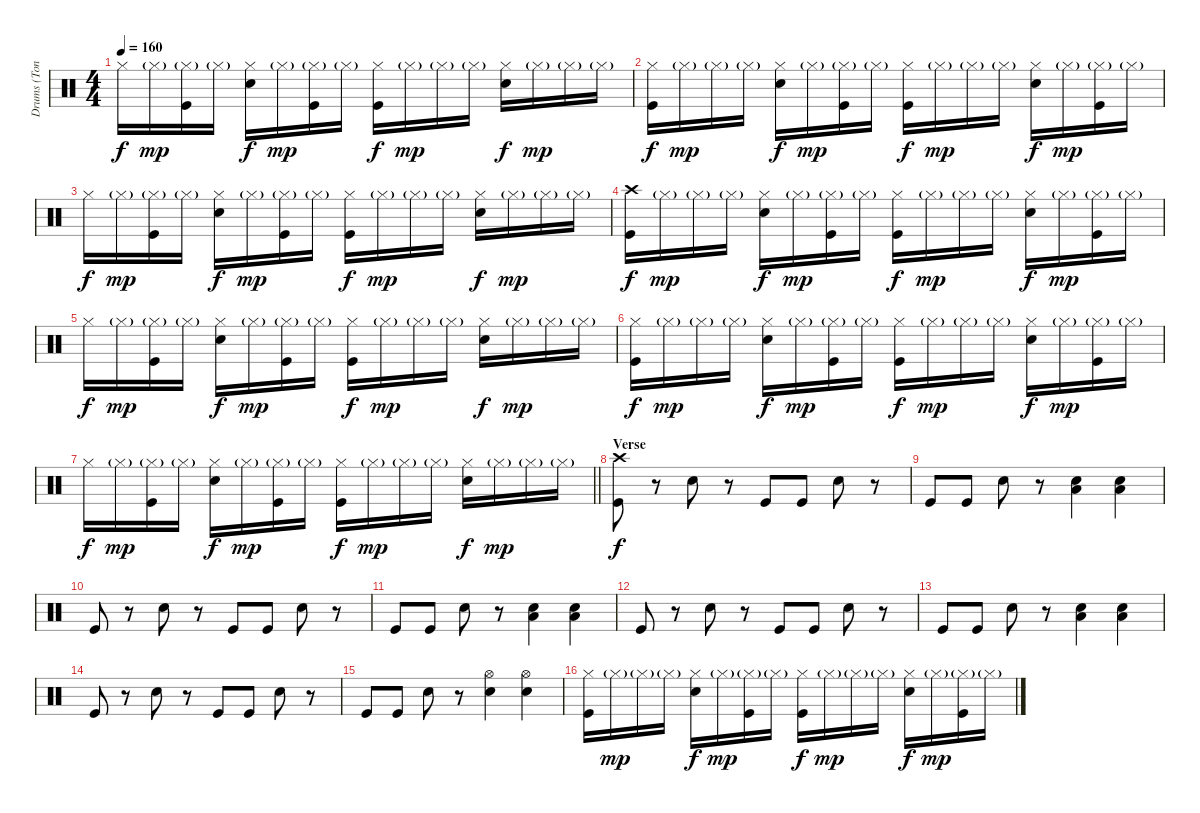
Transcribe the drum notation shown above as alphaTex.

\track ("Drums (Tony)" "Drums (Ton") {instrument percussion}
\staff {score}
\articulation defaults
\ts (4 4)
\tempo 160
\clef neutral
\ks c "Hi-Hat (closed)".16{dy f} "Hi-Hat (closed)"{g}.16{dy mp}
("Hi-Hat (closed)"{g} "Kick (hit)").16 "Hi-Hat (closed)"{g}.16 ("Hi-Hat (closed)" "Snare (hit) 2").16{dy f} "Hi-Hat (closed)"{g}.16{dy mp} ("Hi-Hat (closed)"{g} "Kick (hit)").16 "Hi-Hat (closed)"{g}.16 ("Hi-Hat (closed)" "Kick (hit)").16{dy f} "Hi-Hat (closed)"{g}.16{dy mp} "Hi-Hat (closed)"{g}.16 "Hi-Hat (closed)"{g}.16 ("Hi-Hat (closed)" "Snare (hit) 2").16{dy f} "Hi-Hat (closed)"{g}.16{dy mp} "Hi-Hat (closed)"{g}.16 "Hi-Hat (closed)"{g}.16 |
("Hi-Hat (closed)" "Kick (hit)").16{dy f} "Hi-Hat (closed)"{g}.16{dy mp} "Hi-Hat (closed)"{g}.16 "Hi-Hat (closed)"{g}.16 ("Hi-Hat (closed)" "Snare (hit) 2").16{dy f} "Hi-Hat (closed)"{g}.16{dy mp} ("Hi-Hat (closed)"{g} "Kick (hit)").16 "Hi-Hat (closed)"{g}.16 ("Hi-Hat (closed)" "Kick (hit)").16{dy f} "Hi-Hat (closed)"{g}.16{dy mp} "Hi-Hat (closed)"{g}.16 "Hi-Hat (closed)"{g}.16 ("Hi-Hat (closed)" "Snare (hit) 2").16{dy f} "Hi-Hat (closed)"{g}.16{dy mp} ("Hi-Hat (closed)"{g} "Kick (hit)").16 "Hi-Hat (closed)"{g}.16 |
"Hi-Hat (closed)".16{dy f} "Hi-Hat (closed)"{g}.16{dy mp} ("Hi-Hat (closed)"{g} "Kick (hit)").16 "Hi-Hat (closed)"{g}.16 ("Hi-Hat (closed)" "Snare (hit) 2").16{dy f} "Hi-Hat (closed)"{g}.16{dy mp} ("Hi-Hat (closed)"{g} "Kick (hit)").16 "Hi-Hat (closed)"{g}.16 ("Hi-Hat (closed)" "Kick (hit)").16{dy f} "Hi-Hat (closed)"{g}.16{dy mp} "Hi-Hat (closed)"{g}.16 "Hi-Hat (closed)"{g}.16 ("Hi-Hat (closed)" "Snare (hit) 2").16{dy f} "Hi-Hat (closed)"{g}.16{dy mp} "Hi-Hat (closed)"{g}.16 "Hi-Hat (closed)"{g}.16 |
("Crash high (hit)" "Kick (hit)").16{dy f} "Hi-Hat (closed)"{g}.16{dy mp} "Hi-Hat (closed)"{g}.16 "Hi-Hat (closed)"{g}.16 ("Hi-Hat (closed)" "Snare (hit) 2").16{dy f} "Hi-Hat (closed)"{g}.16{dy mp} ("Hi-Hat (closed)"{g} "Kick (hit)").16 "Hi-Hat (closed)"{g}.16 ("Hi-Hat (closed)" "Kick (hit)").16{dy f} "Hi-Hat (closed)"{g}.16{dy mp} "Hi-Hat (closed)"{g}.16 "Hi-Hat (closed)"{g}.16 ("Hi-Hat (closed)" "Snare (hit) 2").16{dy f} "Hi-Hat (closed)"{g}.16{dy mp} ("Hi-Hat (closed)"{g} "Kick (hit)").16 "Hi-Hat (closed)"{g}.16 |
"Hi-Hat (closed)".16{dy f} "Hi-Hat (closed)"{g}.16{dy mp} ("Hi-Hat (closed)"{g} "Kick (hit)").16 "Hi-Hat (closed)"{g}.16 ("Hi-Hat (closed)" "Snare (hit) 2").16{dy f} "Hi-Hat (closed)"{g}.16{dy mp} ("Hi-Hat (closed)"{g} "Kick (hit)").16 "Hi-Hat (closed)"{g}.16 ("Hi-Hat (closed)" "Kick (hit)").16{dy f} "Hi-Hat (closed)"{g}.16{dy mp} "Hi-Hat (closed)"{g}.16 "Hi-Hat (closed)"{g}.16 ("Hi-Hat (closed)" "Snare (hit) 2").16{dy f} "Hi-Hat (closed)"{g}.16{dy mp} "Hi-Hat (closed)"{g}.16 "Hi-Hat (closed)"{g}.16 |
("Hi-Hat (closed)" "Kick (hit)").16{dy f} "Hi-Hat (closed)"{g}.16{dy mp} "Hi-Hat (closed)"{g}.16 "Hi-Hat (closed)"{g}.16 ("Hi-Hat (closed)" "Snare (hit) 2").16{dy f} "Hi-Hat (closed)"{g}.16{dy mp} ("Hi-Hat (closed)"{g} "Kick (hit)").16 "Hi-Hat (closed)"{g}.16 ("Hi-Hat (closed)" "Kick (hit)").16{dy f} "Hi-Hat (closed)"{g}.16{dy mp} "Hi-Hat (closed)"{g}.16 "Hi-Hat (closed)"{g}.16 ("Hi-Hat (closed)" "Snare (hit) 2").16{dy f} "Hi-Hat (closed)"{g}.16{dy mp} ("Hi-Hat (closed)"{g} "Kick (hit)").16 "Hi-Hat (closed)"{g}.16 |
\barLineRight lightlight "Hi-Hat (closed)".16{dy f} "Hi-Hat (closed)"{g}.16{dy mp}
("Hi-Hat (closed)"{g} "Kick (hit)").16 "Hi-Hat (closed)"{g}.16 ("Hi-Hat (closed)" "Snare (hit) 2").16{dy f} "Hi-Hat (closed)"{g}.16{dy mp} ("Hi-Hat (closed)"{g} "Kick (hit)").16 "Hi-Hat (closed)"{g}.16 ("Hi-Hat (closed)" "Kick (hit)").16{dy f} "Hi-Hat (closed)"{g}.16{dy mp} "Hi-Hat (closed)"{g}.16 "Hi-Hat (closed)"{g}.16 ("Hi-Hat (closed)" "Snare (hit) 2").16{dy f} "Hi-Hat (closed)"{g}.16{dy mp} "Hi-Hat (closed)"{g}.16 "Hi-Hat (closed)"{g}.16 |
\section ("" "Verse")
("Crash high (hit)" "Kick (hit)").8{dy f} r.8 "Snare (hit) 2".8 r.8 "Kick (hit)".8 "Kick (hit)".8 "Snare (hit) 2".8 r.8 |
"Kick (hit)".8 "Kick (hit)".8 "Snare (hit) 2".8 r.8 ("Low Floor Tom (hit)" "Snare (hit) 2").4 ("Low Floor Tom (hit)" "Snare (hit) 2").4 |
"Kick (hit)".8 r.8 "Snare (hit) 2".8 r.8 "Kick (hit)".8 "Kick (hit)".8 "Snare (hit) 2".8 r.8 |
"Kick (hit)".8 "Kick (hit)".8 "Snare (hit) 2".8 r.8 ("Low Floor Tom (hit)" "Snare (hit) 2").4 ("Low Floor Tom (hit)" "Snare (hit) 2").4 |
"Kick (hit)".8 r.8 "Snare (hit) 2".8 r.8 "Kick (hit)".8 "Kick (hit)".8 "Snare (hit) 2".8 r.8 |
"Kick (hit)".8 "Kick (hit)".8 "Snare (hit) 2".8 r.8 ("Low Floor Tom (hit)" "Snare (hit) 2").4 ("Low Floor Tom (hit)" "Snare (hit) 2").4 |
"Kick (hit)".8 r.8 "Snare (hit) 2".8 r.8 "Kick (hit)".8 "Kick (hit)".8 "Snare (hit) 2".8 r.8 |
"Kick (hit)".8 "Kick (hit)".8 "Snare (hit) 2".8 r.8 ("Hi-Hat (open)" "Snare (hit) 2").4 ("Hi-Hat (open)" "Snare (hit) 2").4 |
("Hi-Hat (closed)" "Kick (hit)").16 "Hi-Hat (closed)"{g}.16{dy mp} "Hi-Hat (closed)"{g}.16 "Hi-Hat (closed)"{g}.16 ("Hi-Hat (closed)" "Snare (hit) 2").16{dy f} "Hi-Hat (closed)"{g}.16{dy mp} ("Hi-Hat (closed)"{g} "Kick (hit)").16 "Hi-Hat (closed)"{g}.16 ("Hi-Hat (closed)" "Kick (hit)").16{dy f} "Hi-Hat (closed)"{g}.16{dy mp} "Hi-Hat (closed)"{g}.16 "Hi-Hat (closed)"{g}.16 ("Hi-Hat (closed)" "Snare (hit) 2").16{dy f} "Hi-Hat (closed)"{g}.16{dy mp} ("Hi-Hat (closed)"{g} "Kick (hit)").16 "Hi-Hat (closed)"{g}.16
